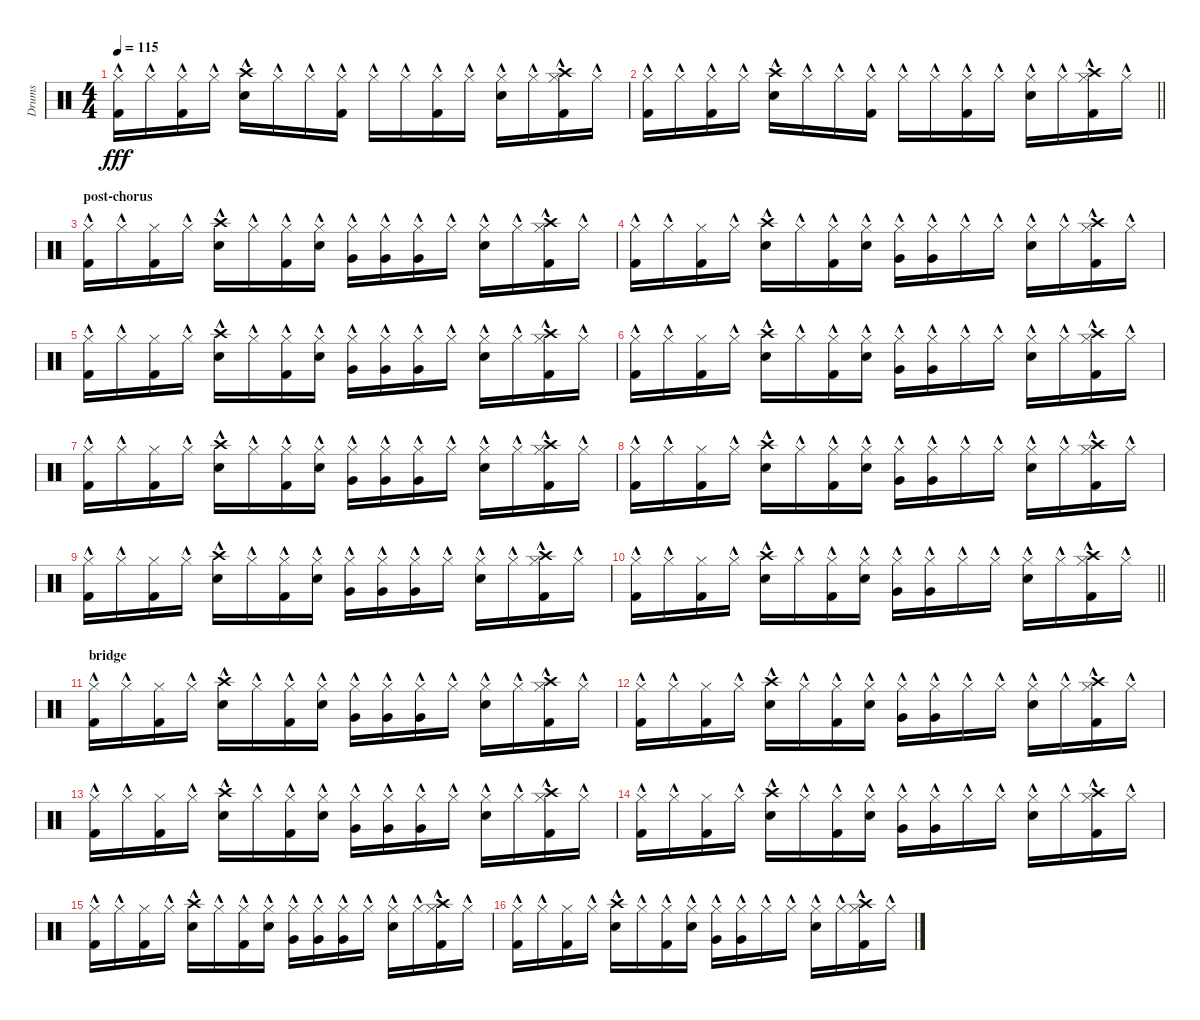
\track ("Drums" "Drums") {instrument percussion}
\staff {score}
\articulation defaults
\ts (4 4)
\tempo 115
\clef neutral
\ks c
("Kick (hit) 2"{hac} "Hi-Hat (closed)").16{dy fff} "Hi-Hat (closed)"{hac}.16 ("Kick (hit) 2"{hac} "Hi-Hat (closed)").16 "Hi-Hat (closed)"{hac}.16 ("Electric Snare (hit)"{hac} "Crash high (hit)").16 "Hi-Hat (closed)"{hac}.16 "Hi-Hat (closed)"{hac}.16 ("Kick (hit) 2" "Hi-Hat (closed)"{hac}).16 "Hi-Hat (closed)"{hac}.16 "Hi-Hat (closed)"{hac}.16 ("Kick (hit) 2" "Hi-Hat (closed)"{hac}).16 "Hi-Hat (closed)"{hac}.16 ("Electric Snare (hit)" "Hi-Hat (closed)"{hac}).16 "Hi-Hat (closed)"{hac}.16 ("Crash high (hit)" "Kick (hit) 2" "Hi-Hat (closed)"{hac}).16 "Hi-Hat (closed)"{hac}.16 |
\barLineRight lightlight
("Kick (hit) 2"{hac} "Hi-Hat (closed)").16 "Hi-Hat (closed)"{hac}.16 ("Kick (hit) 2"{hac} "Hi-Hat (closed)").16 "Hi-Hat (closed)"{hac}.16 ("Electric Snare (hit)"{hac} "Crash high (hit)").16 "Hi-Hat (closed)"{hac}.16 "Hi-Hat (closed)"{hac}.16 ("Kick (hit) 2" "Hi-Hat (closed)"{hac}).16 "Hi-Hat (closed)"{hac}.16 "Hi-Hat (closed)"{hac}.16 ("Kick (hit) 2" "Hi-Hat (closed)"{hac}).16 "Hi-Hat (closed)"{hac}.16 ("Electric Snare (hit)" "Hi-Hat (closed)"{hac}).16 "Hi-Hat (closed)"{hac}.16 ("Crash high (hit)" "Kick (hit) 2" "Hi-Hat (closed)"{hac}).16 "Hi-Hat (closed)"{hac}.16 |
\section ("" "post-chorus")
("Kick (hit) 2"{hac} "Hi-Hat (closed)").16 "Hi-Hat (closed)"{hac}.16 ("Kick (hit) 2" "Hi-Hat (closed)").16 "Hi-Hat (closed)"{hac}.16 ("Electric Snare (hit)"{hac} "Crash high (hit)").16 "Hi-Hat (closed)"{hac}.16 ("Kick (hit) 2" "Hi-Hat (closed)"{hac}).16 ("Electric Snare (hit)" "Hi-Hat (closed)"{hac}).16 ("Very Low Tom (hit)" "Hi-Hat (closed)"{hac}).16 ("Very Low Tom (hit)" "Hi-Hat (closed)"{hac}).16 ("Very Low Tom (hit)" "Hi-Hat (closed)"{hac}).16 "Hi-Hat (closed)"{hac}.16 ("Electric Snare (hit)" "Hi-Hat (closed)"{hac}).16 "Hi-Hat (closed)"{hac}.16 ("Crash high (hit)" "Kick (hit) 2" "Hi-Hat (closed)"{hac}).16 "Hi-Hat (closed)"{hac}.16 |
("Kick (hit) 2"{hac} "Hi-Hat (closed)").16 "Hi-Hat (closed)"{hac}.16 ("Kick (hit) 2" "Hi-Hat (closed)").16 "Hi-Hat (closed)"{hac}.16 ("Electric Snare (hit)"{hac} "Crash high (hit)").16 "Hi-Hat (closed)"{hac}.16 ("Kick (hit) 2" "Hi-Hat (closed)"{hac}).16 ("Electric Snare (hit)" "Hi-Hat (closed)"{hac}).16 ("Very Low Tom (hit)" "Hi-Hat (closed)"{hac}).16 ("Very Low Tom (hit)" "Hi-Hat (closed)"{hac}).16 "Hi-Hat (closed)"{hac}.16 "Hi-Hat (closed)"{hac}.16 ("Electric Snare (hit)" "Hi-Hat (closed)"{hac}).16 "Hi-Hat (closed)"{hac}.16 ("Crash high (hit)" "Kick (hit) 2" "Hi-Hat (closed)"{hac}).16 "Hi-Hat (closed)"{hac}.16 |
("Kick (hit) 2"{hac} "Hi-Hat (closed)").16 "Hi-Hat (closed)"{hac}.16 ("Kick (hit) 2" "Hi-Hat (closed)").16 "Hi-Hat (closed)"{hac}.16 ("Electric Snare (hit)"{hac} "Crash high (hit)").16 "Hi-Hat (closed)"{hac}.16 ("Kick (hit) 2" "Hi-Hat (closed)"{hac}).16 ("Electric Snare (hit)" "Hi-Hat (closed)"{hac}).16 ("Very Low Tom (hit)" "Hi-Hat (closed)"{hac}).16 ("Very Low Tom (hit)" "Hi-Hat (closed)"{hac}).16 ("Very Low Tom (hit)" "Hi-Hat (closed)"{hac}).16 "Hi-Hat (closed)"{hac}.16 ("Electric Snare (hit)" "Hi-Hat (closed)"{hac}).16 "Hi-Hat (closed)"{hac}.16 ("Crash high (hit)" "Kick (hit) 2" "Hi-Hat (closed)"{hac}).16 "Hi-Hat (closed)"{hac}.16 |
("Kick (hit) 2"{hac} "Hi-Hat (closed)").16 "Hi-Hat (closed)"{hac}.16 ("Kick (hit) 2" "Hi-Hat (closed)").16 "Hi-Hat (closed)"{hac}.16 ("Electric Snare (hit)"{hac} "Crash high (hit)").16 "Hi-Hat (closed)"{hac}.16 ("Kick (hit) 2" "Hi-Hat (closed)"{hac}).16 ("Electric Snare (hit)" "Hi-Hat (closed)"{hac}).16 ("Very Low Tom (hit)" "Hi-Hat (closed)"{hac}).16 ("Very Low Tom (hit)" "Hi-Hat (closed)"{hac}).16 "Hi-Hat (closed)"{hac}.16 "Hi-Hat (closed)"{hac}.16 ("Electric Snare (hit)" "Hi-Hat (closed)"{hac}).16 "Hi-Hat (closed)"{hac}.16 ("Crash high (hit)" "Kick (hit) 2" "Hi-Hat (closed)"{hac}).16 "Hi-Hat (closed)"{hac}.16 |
("Kick (hit) 2"{hac} "Hi-Hat (closed)").16 "Hi-Hat (closed)"{hac}.16 ("Kick (hit) 2" "Hi-Hat (closed)").16 "Hi-Hat (closed)"{hac}.16 ("Electric Snare (hit)"{hac} "Crash high (hit)").16 "Hi-Hat (closed)"{hac}.16 ("Kick (hit) 2" "Hi-Hat (closed)"{hac}).16 ("Electric Snare (hit)" "Hi-Hat (closed)"{hac}).16 ("Very Low Tom (hit)" "Hi-Hat (closed)"{hac}).16 ("Very Low Tom (hit)" "Hi-Hat (closed)"{hac}).16 ("Very Low Tom (hit)" "Hi-Hat (closed)"{hac}).16 "Hi-Hat (closed)"{hac}.16 ("Electric Snare (hit)" "Hi-Hat (closed)"{hac}).16 "Hi-Hat (closed)"{hac}.16 ("Crash high (hit)" "Kick (hit) 2" "Hi-Hat (closed)"{hac}).16 "Hi-Hat (closed)"{hac}.16 |
("Kick (hit) 2"{hac} "Hi-Hat (closed)").16 "Hi-Hat (closed)"{hac}.16 ("Kick (hit) 2" "Hi-Hat (closed)").16 "Hi-Hat (closed)"{hac}.16 ("Electric Snare (hit)"{hac} "Crash high (hit)").16 "Hi-Hat (closed)"{hac}.16 ("Kick (hit) 2" "Hi-Hat (closed)"{hac}).16 ("Electric Snare (hit)" "Hi-Hat (closed)"{hac}).16 ("Very Low Tom (hit)" "Hi-Hat (closed)"{hac}).16 ("Very Low Tom (hit)" "Hi-Hat (closed)"{hac}).16 "Hi-Hat (closed)"{hac}.16 "Hi-Hat (closed)"{hac}.16 ("Electric Snare (hit)" "Hi-Hat (closed)"{hac}).16 "Hi-Hat (closed)"{hac}.16 ("Crash high (hit)" "Kick (hit) 2" "Hi-Hat (closed)"{hac}).16 "Hi-Hat (closed)"{hac}.16 |
("Kick (hit) 2"{hac} "Hi-Hat (closed)").16 "Hi-Hat (closed)"{hac}.16 ("Kick (hit) 2" "Hi-Hat (closed)").16 "Hi-Hat (closed)"{hac}.16 ("Electric Snare (hit)"{hac} "Crash high (hit)").16 "Hi-Hat (closed)"{hac}.16 ("Kick (hit) 2" "Hi-Hat (closed)"{hac}).16 ("Electric Snare (hit)" "Hi-Hat (closed)"{hac}).16 ("Very Low Tom (hit)" "Hi-Hat (closed)"{hac}).16 ("Very Low Tom (hit)" "Hi-Hat (closed)"{hac}).16 ("Very Low Tom (hit)" "Hi-Hat (closed)"{hac}).16 "Hi-Hat (closed)"{hac}.16 ("Electric Snare (hit)" "Hi-Hat (closed)"{hac}).16 "Hi-Hat (closed)"{hac}.16 ("Crash high (hit)" "Kick (hit) 2" "Hi-Hat (closed)"{hac}).16 "Hi-Hat (closed)"{hac}.16 |
\barLineRight lightlight
("Kick (hit) 2"{hac} "Hi-Hat (closed)").16 "Hi-Hat (closed)"{hac}.16 ("Kick (hit) 2" "Hi-Hat (closed)").16 "Hi-Hat (closed)"{hac}.16 ("Electric Snare (hit)"{hac} "Crash high (hit)").16 "Hi-Hat (closed)"{hac}.16 ("Kick (hit) 2" "Hi-Hat (closed)"{hac}).16 ("Electric Snare (hit)" "Hi-Hat (closed)"{hac}).16 ("Very Low Tom (hit)" "Hi-Hat (closed)"{hac}).16 ("Very Low Tom (hit)" "Hi-Hat (closed)"{hac}).16 "Hi-Hat (closed)"{hac}.16 "Hi-Hat (closed)"{hac}.16 ("Electric Snare (hit)" "Hi-Hat (closed)"{hac}).16 "Hi-Hat (closed)"{hac}.16 ("Crash high (hit)" "Kick (hit) 2" "Hi-Hat (closed)"{hac}).16 "Hi-Hat (closed)"{hac}.16 |
\section ("" "bridge")
("Kick (hit) 2"{hac} "Hi-Hat (closed)").16 "Hi-Hat (closed)"{hac}.16 ("Kick (hit) 2" "Hi-Hat (closed)").16 "Hi-Hat (closed)"{hac}.16 ("Electric Snare (hit)"{hac} "Crash high (hit)").16 "Hi-Hat (closed)"{hac}.16 ("Kick (hit) 2" "Hi-Hat (closed)"{hac}).16 ("Electric Snare (hit)" "Hi-Hat (closed)"{hac}).16 ("Very Low Tom (hit)" "Hi-Hat (closed)"{hac}).16 ("Very Low Tom (hit)" "Hi-Hat (closed)"{hac}).16 ("Very Low Tom (hit)" "Hi-Hat (closed)"{hac}).16 "Hi-Hat (closed)"{hac}.16 ("Electric Snare (hit)" "Hi-Hat (closed)"{hac}).16 "Hi-Hat (closed)"{hac}.16 ("Crash high (hit)" "Kick (hit) 2" "Hi-Hat (closed)"{hac}).16 "Hi-Hat (closed)"{hac}.16 |
("Kick (hit) 2"{hac} "Hi-Hat (closed)").16 "Hi-Hat (closed)"{hac}.16 ("Kick (hit) 2" "Hi-Hat (closed)").16 "Hi-Hat (closed)"{hac}.16 ("Electric Snare (hit)"{hac} "Crash high (hit)").16 "Hi-Hat (closed)"{hac}.16 ("Kick (hit) 2" "Hi-Hat (closed)"{hac}).16 ("Electric Snare (hit)" "Hi-Hat (closed)"{hac}).16 ("Very Low Tom (hit)" "Hi-Hat (closed)"{hac}).16 ("Very Low Tom (hit)" "Hi-Hat (closed)"{hac}).16 "Hi-Hat (closed)"{hac}.16 "Hi-Hat (closed)"{hac}.16 ("Electric Snare (hit)" "Hi-Hat (closed)"{hac}).16 "Hi-Hat (closed)"{hac}.16 ("Crash high (hit)" "Kick (hit) 2" "Hi-Hat (closed)"{hac}).16 "Hi-Hat (closed)"{hac}.16 |
("Kick (hit) 2"{hac} "Hi-Hat (closed)").16 "Hi-Hat (closed)"{hac}.16 ("Kick (hit) 2" "Hi-Hat (closed)").16 "Hi-Hat (closed)"{hac}.16 ("Electric Snare (hit)"{hac} "Crash high (hit)").16 "Hi-Hat (closed)"{hac}.16 ("Kick (hit) 2" "Hi-Hat (closed)"{hac}).16 ("Electric Snare (hit)" "Hi-Hat (closed)"{hac}).16 ("Very Low Tom (hit)" "Hi-Hat (closed)"{hac}).16 ("Very Low Tom (hit)" "Hi-Hat (closed)"{hac}).16 ("Very Low Tom (hit)" "Hi-Hat (closed)"{hac}).16 "Hi-Hat (closed)"{hac}.16 ("Electric Snare (hit)" "Hi-Hat (closed)"{hac}).16 "Hi-Hat (closed)"{hac}.16 ("Crash high (hit)" "Kick (hit) 2" "Hi-Hat (closed)"{hac}).16 "Hi-Hat (closed)"{hac}.16 |
("Kick (hit) 2"{hac} "Hi-Hat (closed)").16 "Hi-Hat (closed)"{hac}.16 ("Kick (hit) 2" "Hi-Hat (closed)").16 "Hi-Hat (closed)"{hac}.16 ("Electric Snare (hit)"{hac} "Crash high (hit)").16 "Hi-Hat (closed)"{hac}.16 ("Kick (hit) 2" "Hi-Hat (closed)"{hac}).16 ("Electric Snare (hit)" "Hi-Hat (closed)"{hac}).16 ("Very Low Tom (hit)" "Hi-Hat (closed)"{hac}).16 ("Very Low Tom (hit)" "Hi-Hat (closed)"{hac}).16 "Hi-Hat (closed)"{hac}.16 "Hi-Hat (closed)"{hac}.16 ("Electric Snare (hit)" "Hi-Hat (closed)"{hac}).16 "Hi-Hat (closed)"{hac}.16 ("Crash high (hit)" "Kick (hit) 2" "Hi-Hat (closed)"{hac}).16 "Hi-Hat (closed)"{hac}.16 |
("Kick (hit) 2"{hac} "Hi-Hat (closed)").16 "Hi-Hat (closed)"{hac}.16 ("Kick (hit) 2" "Hi-Hat (closed)").16 "Hi-Hat (closed)"{hac}.16 ("Electric Snare (hit)"{hac} "Crash high (hit)").16 "Hi-Hat (closed)"{hac}.16 ("Kick (hit) 2" "Hi-Hat (closed)"{hac}).16 ("Electric Snare (hit)" "Hi-Hat (closed)"{hac}).16 ("Very Low Tom (hit)" "Hi-Hat (closed)"{hac}).16 ("Very Low Tom (hit)" "Hi-Hat (closed)"{hac}).16 ("Very Low Tom (hit)" "Hi-Hat (closed)"{hac}).16 "Hi-Hat (closed)"{hac}.16 ("Electric Snare (hit)" "Hi-Hat (closed)"{hac}).16 "Hi-Hat (closed)"{hac}.16 ("Crash high (hit)" "Kick (hit) 2" "Hi-Hat (closed)"{hac}).16 "Hi-Hat (closed)"{hac}.16 |
("Kick (hit) 2"{hac} "Hi-Hat (closed)").16 "Hi-Hat (closed)"{hac}.16 ("Kick (hit) 2" "Hi-Hat (closed)").16 "Hi-Hat (closed)"{hac}.16 ("Electric Snare (hit)"{hac} "Crash high (hit)").16 "Hi-Hat (closed)"{hac}.16 ("Kick (hit) 2" "Hi-Hat (closed)"{hac}).16 ("Electric Snare (hit)" "Hi-Hat (closed)"{hac}).16 ("Very Low Tom (hit)" "Hi-Hat (closed)"{hac}).16 ("Very Low Tom (hit)" "Hi-Hat (closed)"{hac}).16 "Hi-Hat (closed)"{hac}.16 "Hi-Hat (closed)"{hac}.16 ("Electric Snare (hit)" "Hi-Hat (closed)"{hac}).16 "Hi-Hat (closed)"{hac}.16 ("Crash high (hit)" "Kick (hit) 2" "Hi-Hat (closed)"{hac}).16 "Hi-Hat (closed)"{hac}.16
